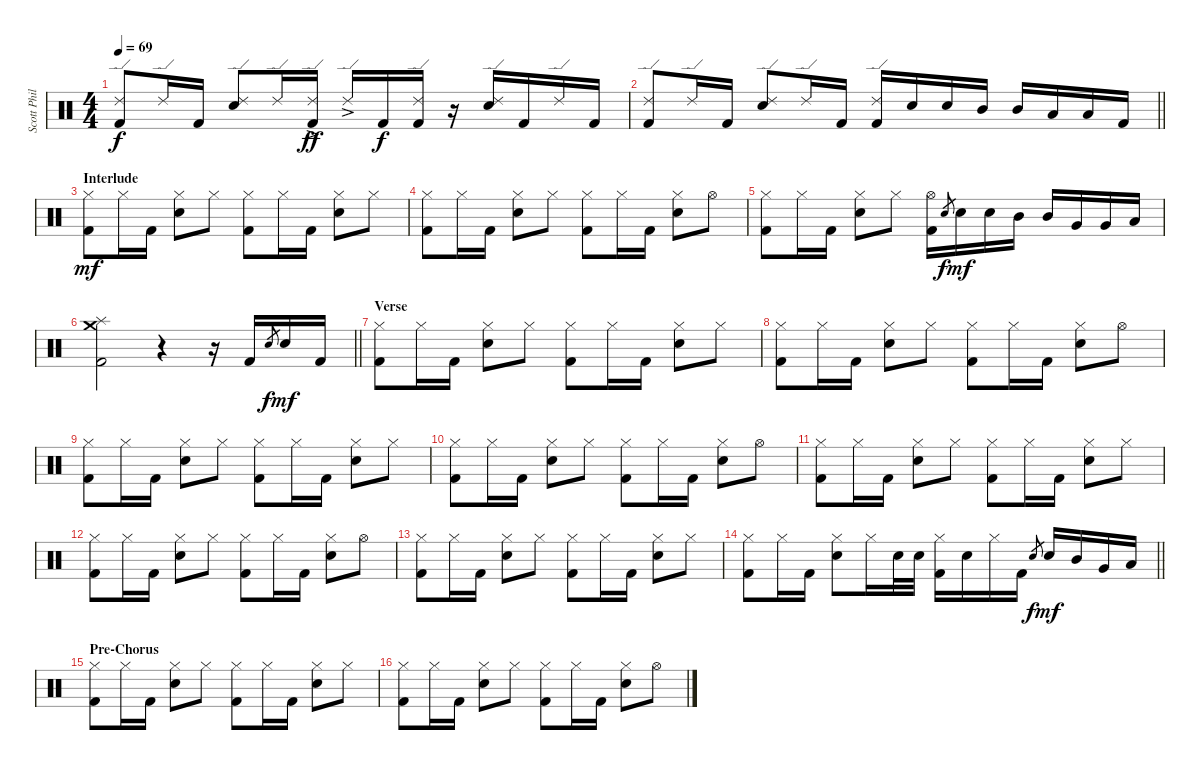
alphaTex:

\track ("Scott Phillips" "Scott Phil") {instrument percussion}
\staff {score}
\articulation defaults
\ts (4 4)
\tempo 69
\clef neutral
\ks c
("Ride (edge) 2" "Kick (hit) 2").8{dy f} "Ride (edge) 2".16 "Kick (hit) 2".16 ("Ride (edge) 2" "Electric Snare (hit)").8 "Ride (edge) 2".16 ("Ride (edge) 2"{ac} "Kick (hit) 2").16{dy ff} "Ride (edge) 2"{ac}.16 "Kick (hit) 2".16{dy f} ("Ride (edge) 2" "Kick (hit) 2").16 r.16 ("Ride (edge) 2" "Electric Snare (hit)").16 "Kick (hit) 2".16 "Ride (edge) 2".16 "Kick (hit) 2".16 |
\barLineRight lightlight
("Ride (edge) 2" "Kick (hit) 2").8 "Ride (edge) 2".16 "Kick (hit) 2".16 ("Ride (edge) 2" "Electric Snare (hit)").8 "Ride (edge) 2".16 "Kick (hit) 2".16 ("Ride (edge) 2" "Kick (hit) 2").16 "Electric Snare (hit)".16 "Electric Snare (hit)".16 "Mid Tom (hit)".16 "Mid Tom (hit)".16 "Low Floor Tom (hit)".16 "Low Floor Tom (hit)".16 "Kick (hit) 2".16 |
\section ("" "Interlude")
("Hi-Hat (closed)" "Kick (hit) 2").8{dy mf} "Hi-Hat (closed)".16 "Kick (hit) 2".16 ("Hi-Hat (closed)" "Electric Snare (hit)").8 "Hi-Hat (closed)".8 ("Hi-Hat (closed)" "Kick (hit) 2").8 "Hi-Hat (closed)".16 "Kick (hit) 2".16 ("Hi-Hat (closed)" "Electric Snare (hit)").8 "Hi-Hat (closed)".8 |
("Hi-Hat (closed)" "Kick (hit) 2").8 "Hi-Hat (closed)".16 "Kick (hit) 2".16 ("Hi-Hat (closed)" "Electric Snare (hit)").8 "Hi-Hat (closed)".8 ("Hi-Hat (closed)" "Kick (hit) 2").8 "Hi-Hat (closed)".16 "Kick (hit) 2".16 ("Hi-Hat (closed)" "Electric Snare (hit)").8 "Hi-Hat (open)".8 |
("Hi-Hat (closed)" "Kick (hit) 2").8 "Hi-Hat (closed)".16 "Kick (hit) 2".16 ("Hi-Hat (closed)" "Electric Snare (hit)").8 "Hi-Hat (closed)".8 ("Hi-Hat (open)" "Kick (hit) 2").16 "Electric Snare (hit)".8{gr dy f} "Electric Snare (hit)".16{dy mf} "Electric Snare (hit)".16 "Mid Tom (hit)".16 "Mid Tom (hit)".16 "Very Low Tom (hit)".16 "Very Low Tom (hit)".16 "Low Floor Tom (hit)".16 |
\barLineRight lightlight
("Crash medium (hit)" "Splash (hit)" "Kick (hit) 2").2 r.4 r.16 "Kick (hit) 2".16 "Electric Snare (hit)".8{gr dy f} "Electric Snare (hit)".16{dy mf} "Kick (hit) 2".16 |
\section ("" "Verse")
("Hi-Hat (closed)" "Kick (hit) 2").8 "Hi-Hat (closed)".16 "Kick (hit) 2".16 ("Hi-Hat (closed)" "Electric Snare (hit)").8 "Hi-Hat (closed)".8 ("Hi-Hat (closed)" "Kick (hit) 2").8 "Hi-Hat (closed)".16 "Kick (hit) 2".16 ("Hi-Hat (closed)" "Electric Snare (hit)").8 "Hi-Hat (closed)".8 |
("Hi-Hat (closed)" "Kick (hit) 2").8 "Hi-Hat (closed)".16 "Kick (hit) 2".16 ("Hi-Hat (closed)" "Electric Snare (hit)").8 "Hi-Hat (closed)".8 ("Hi-Hat (closed)" "Kick (hit) 2").8 "Hi-Hat (closed)".16 "Kick (hit) 2".16 ("Hi-Hat (closed)" "Electric Snare (hit)").8 "Hi-Hat (open)".8 |
("Hi-Hat (closed)" "Kick (hit) 2").8 "Hi-Hat (closed)".16 "Kick (hit) 2".16 ("Hi-Hat (closed)" "Electric Snare (hit)").8 "Hi-Hat (closed)".8 ("Hi-Hat (closed)" "Kick (hit) 2").8 "Hi-Hat (closed)".16 "Kick (hit) 2".16 ("Hi-Hat (closed)" "Electric Snare (hit)").8 "Hi-Hat (closed)".8 |
("Hi-Hat (closed)" "Kick (hit) 2").8 "Hi-Hat (closed)".16 "Kick (hit) 2".16 ("Hi-Hat (closed)" "Electric Snare (hit)").8 "Hi-Hat (closed)".8 ("Hi-Hat (closed)" "Kick (hit) 2").8 "Hi-Hat (closed)".16 "Kick (hit) 2".16 ("Hi-Hat (closed)" "Electric Snare (hit)").8 "Hi-Hat (open)".8 |
("Hi-Hat (closed)" "Kick (hit) 2").8 "Hi-Hat (closed)".16 "Kick (hit) 2".16 ("Hi-Hat (closed)" "Electric Snare (hit)").8 "Hi-Hat (closed)".8 ("Hi-Hat (closed)" "Kick (hit) 2").8 "Hi-Hat (closed)".16 "Kick (hit) 2".16 ("Hi-Hat (closed)" "Electric Snare (hit)").8 "Hi-Hat (closed)".8 |
("Hi-Hat (closed)" "Kick (hit) 2").8 "Hi-Hat (closed)".16 "Kick (hit) 2".16 ("Hi-Hat (closed)" "Electric Snare (hit)").8 "Hi-Hat (closed)".8 ("Hi-Hat (closed)" "Kick (hit) 2").8 "Hi-Hat (closed)".16 "Kick (hit) 2".16 ("Hi-Hat (closed)" "Electric Snare (hit)").8 "Hi-Hat (open)".8 |
("Hi-Hat (closed)" "Kick (hit) 2").8 "Hi-Hat (closed)".16 "Kick (hit) 2".16 ("Hi-Hat (closed)" "Electric Snare (hit)").8 "Hi-Hat (closed)".8 ("Hi-Hat (closed)" "Kick (hit) 2").8 "Hi-Hat (closed)".16 "Kick (hit) 2".16 ("Hi-Hat (closed)" "Electric Snare (hit)").8 "Hi-Hat (closed)".8 |
\barLineRight lightlight
("Hi-Hat (closed)" "Kick (hit) 2").8 "Hi-Hat (closed)".16 "Kick (hit) 2".16 ("Hi-Hat (closed)" "Electric Snare (hit)").8 "Hi-Hat (closed)".16 "Electric Snare (hit)".32 "Electric Snare (hit)".32 ("Hi-Hat (closed)" "Kick (hit) 2").16 "Electric Snare (hit)".16 "Hi-Hat (closed)".16 "Kick (hit) 2".16 "Electric Snare (hit)".8{gr dy f} "Electric Snare (hit)".16{dy mf} "Mid Tom (hit)".16 "Very Low Tom (hit)".16 "Low Floor Tom (hit)".16 |
\section ("" "Pre-Chorus")
("Hi-Hat (closed)" "Kick (hit) 2").8 "Hi-Hat (closed)".16 "Kick (hit) 2".16 ("Hi-Hat (closed)" "Electric Snare (hit)").8 "Hi-Hat (closed)".8 ("Hi-Hat (closed)" "Kick (hit) 2").8 "Hi-Hat (closed)".16 "Kick (hit) 2".16 ("Hi-Hat (closed)" "Electric Snare (hit)").8 "Hi-Hat (closed)".8 |
("Hi-Hat (closed)" "Kick (hit) 2").8 "Hi-Hat (closed)".16 "Kick (hit) 2".16 ("Hi-Hat (closed)" "Electric Snare (hit)").8 "Hi-Hat (closed)".8 ("Hi-Hat (closed)" "Kick (hit) 2").8 "Hi-Hat (closed)".16 "Kick (hit) 2".16 ("Hi-Hat (closed)" "Electric Snare (hit)").8 "Hi-Hat (open)".8
